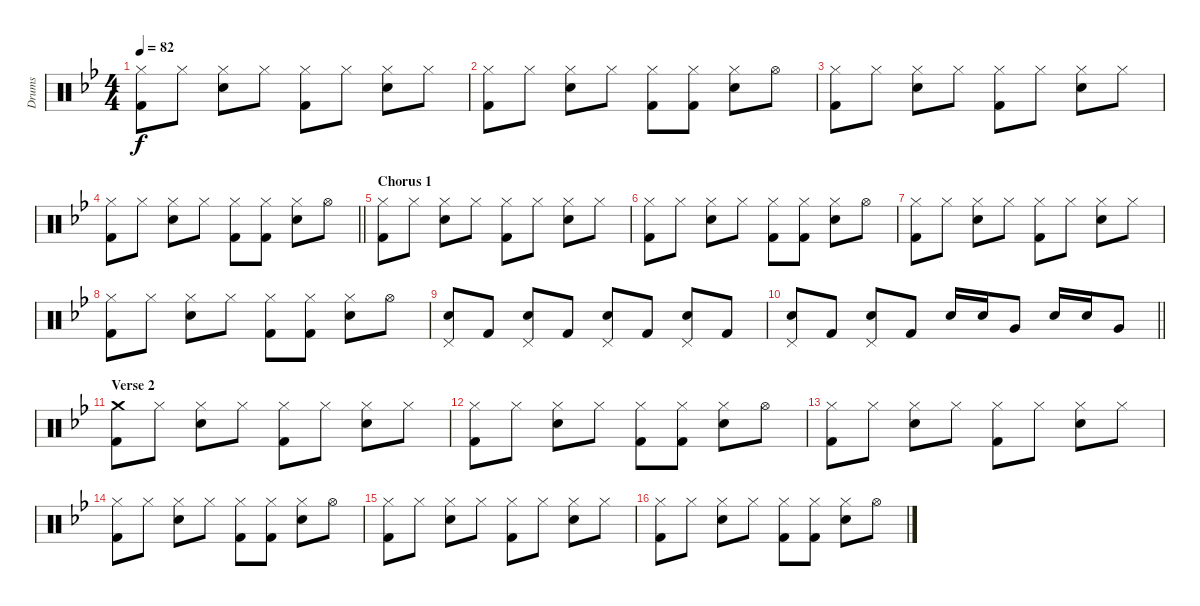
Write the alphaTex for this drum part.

\track ("Drums" "Drums") {instrument percussion}
\staff {score}
\articulation defaults
\ts (4 4)
\tempo 82
\clef neutral
\ks gminor
("Hi-Hat (closed)" "Kick (hit) 2").8{dy f} "Hi-Hat (closed)".8 ("Hi-Hat (closed)" "Snare (hit) 2").8 "Hi-Hat (closed)".8 ("Hi-Hat (closed)" "Kick (hit) 2").8 "Hi-Hat (closed)".8 ("Hi-Hat (closed)" "Snare (hit) 2").8 "Hi-Hat (closed)".8 |
("Hi-Hat (closed)" "Kick (hit) 2").8 "Hi-Hat (closed)".8 ("Hi-Hat (closed)" "Snare (hit) 2").8 "Hi-Hat (closed)".8 ("Hi-Hat (closed)" "Kick (hit) 2").8 ("Hi-Hat (closed)" "Kick (hit) 2").8 ("Hi-Hat (closed)" "Snare (hit) 2").8 "Hi-Hat (open)".8 |
("Hi-Hat (closed)" "Kick (hit) 2").8 "Hi-Hat (closed)".8 ("Hi-Hat (closed)" "Snare (hit) 2").8 "Hi-Hat (closed)".8 ("Hi-Hat (closed)" "Kick (hit) 2").8 "Hi-Hat (closed)".8 ("Hi-Hat (closed)" "Snare (hit) 2").8 "Hi-Hat (closed)".8 |
\barLineRight lightlight
("Hi-Hat (closed)" "Kick (hit) 2").8 "Hi-Hat (closed)".8 ("Hi-Hat (closed)" "Snare (hit) 2").8 "Hi-Hat (closed)".8 ("Hi-Hat (closed)" "Kick (hit) 2").8 ("Hi-Hat (closed)" "Kick (hit) 2").8 ("Hi-Hat (closed)" "Snare (hit) 2").8 "Hi-Hat (open)".8 |
\section ("" "Chorus 1")
("Hi-Hat (closed)" "Kick (hit) 2").8 "Hi-Hat (closed)".8 ("Hi-Hat (closed)" "Snare (hit) 2").8 "Hi-Hat (closed)".8 ("Hi-Hat (closed)" "Kick (hit) 2").8 "Hi-Hat (closed)".8 ("Hi-Hat (closed)" "Snare (hit) 2").8 "Hi-Hat (closed)".8 |
("Hi-Hat (closed)" "Kick (hit) 2").8 "Hi-Hat (closed)".8 ("Hi-Hat (closed)" "Snare (hit) 2").8 "Hi-Hat (closed)".8 ("Hi-Hat (closed)" "Kick (hit) 2").8 ("Hi-Hat (closed)" "Kick (hit) 2").8 ("Hi-Hat (closed)" "Snare (hit) 2").8 "Hi-Hat (open)".8 |
("Hi-Hat (closed)" "Kick (hit) 2").8 "Hi-Hat (closed)".8 ("Hi-Hat (closed)" "Snare (hit) 2").8 "Hi-Hat (closed)".8 ("Hi-Hat (closed)" "Kick (hit) 2").8 "Hi-Hat (closed)".8 ("Hi-Hat (closed)" "Snare (hit) 2").8 "Hi-Hat (closed)".8 |
("Hi-Hat (closed)" "Kick (hit) 2").8 "Hi-Hat (closed)".8 ("Hi-Hat (closed)" "Snare (hit) 2").8 "Hi-Hat (closed)".8 ("Hi-Hat (closed)" "Kick (hit) 2").8 ("Hi-Hat (closed)" "Kick (hit) 2").8 ("Hi-Hat (closed)" "Snare (hit) 2").8 "Hi-Hat (open)".8 |
("Pedal Hi-Hat (hit)" "Snare (hit) 2").8 "Kick (hit) 2".8 ("Pedal Hi-Hat (hit)" "Snare (hit) 2").8 "Kick (hit) 2".8 ("Pedal Hi-Hat (hit)" "Snare (hit) 2").8 "Kick (hit) 2".8 ("Pedal Hi-Hat (hit)" "Snare (hit) 2").8 "Kick (hit) 2".8 |
\barLineRight lightlight
("Pedal Hi-Hat (hit)" "Snare (hit) 2").8 "Kick (hit) 2".8 ("Pedal Hi-Hat (hit)" "Snare (hit) 2").8 "Kick (hit) 2".8 "Snare (hit) 2".16 "Snare (hit) 2".16 "Very Low Tom (hit)".8 "Snare (hit) 2".16 "Snare (hit) 2".16 "Very Low Tom (hit)".8 |
\section ("" "Verse 2")
("Crash medium (hit)" "Kick (hit) 2").8 "Hi-Hat (closed)".8 ("Hi-Hat (closed)" "Snare (hit) 2").8 "Hi-Hat (closed)".8 ("Hi-Hat (closed)" "Kick (hit) 2").8 "Hi-Hat (closed)".8 ("Hi-Hat (closed)" "Snare (hit) 2").8 "Hi-Hat (closed)".8 |
("Hi-Hat (closed)" "Kick (hit) 2").8 "Hi-Hat (closed)".8 ("Hi-Hat (closed)" "Snare (hit) 2").8 "Hi-Hat (closed)".8 ("Hi-Hat (closed)" "Kick (hit) 2").8 ("Hi-Hat (closed)" "Kick (hit) 2").8 ("Hi-Hat (closed)" "Snare (hit) 2").8 "Hi-Hat (open)".8 |
("Hi-Hat (closed)" "Kick (hit) 2").8 "Hi-Hat (closed)".8 ("Hi-Hat (closed)" "Snare (hit) 2").8 "Hi-Hat (closed)".8 ("Hi-Hat (closed)" "Kick (hit) 2").8 "Hi-Hat (closed)".8 ("Hi-Hat (closed)" "Snare (hit) 2").8 "Hi-Hat (closed)".8 |
("Hi-Hat (closed)" "Kick (hit) 2").8 "Hi-Hat (closed)".8 ("Hi-Hat (closed)" "Snare (hit) 2").8 "Hi-Hat (closed)".8 ("Hi-Hat (closed)" "Kick (hit) 2").8 ("Hi-Hat (closed)" "Kick (hit) 2").8 ("Hi-Hat (closed)" "Snare (hit) 2").8 "Hi-Hat (open)".8 |
("Hi-Hat (closed)" "Kick (hit) 2").8 "Hi-Hat (closed)".8 ("Hi-Hat (closed)" "Snare (hit) 2").8 "Hi-Hat (closed)".8 ("Hi-Hat (closed)" "Kick (hit) 2").8 "Hi-Hat (closed)".8 ("Hi-Hat (closed)" "Snare (hit) 2").8 "Hi-Hat (closed)".8 |
("Hi-Hat (closed)" "Kick (hit) 2").8 "Hi-Hat (closed)".8 ("Hi-Hat (closed)" "Snare (hit) 2").8 "Hi-Hat (closed)".8 ("Hi-Hat (closed)" "Kick (hit) 2").8 ("Hi-Hat (closed)" "Kick (hit) 2").8 ("Hi-Hat (closed)" "Snare (hit) 2").8 "Hi-Hat (open)".8
